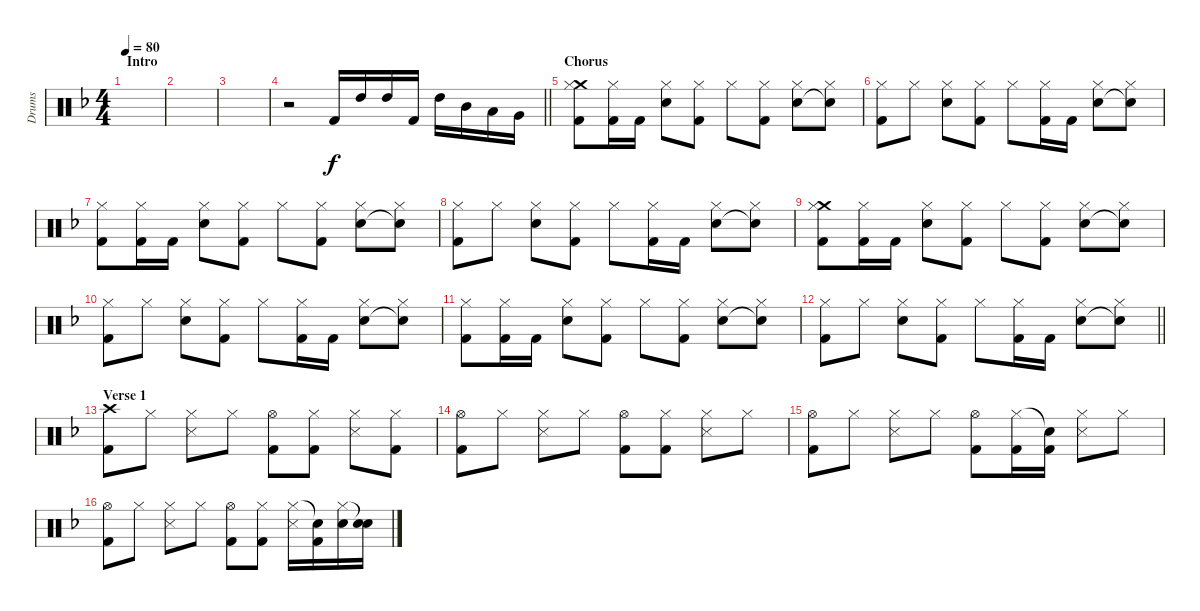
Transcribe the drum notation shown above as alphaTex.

\track ("Drums" "Drums") {instrument percussion}
\staff {score}
\articulation defaults
\ts (4 4)
\section ("" "Intro")
\tempo 80
\clef neutral
\ks f
|
|
|
\barLineRight lightlight
r.2 "Kick (hit) 2".16 "High Tom (hit)".16 "High Tom (hit)".16 "Kick (hit) 2".16 "High Tom (hit)".16 "Mid Tom (hit)".16 "Low Tom (hit)".16 "Very Low Tom (hit)".16 |
\section ("" "Chorus")
("Crash medium (hit)" "Hi-Hat (closed)" "Kick (hit) 2").8 ("Hi-Hat (closed)" "Kick (hit) 2").16 "Kick (hit) 2".16 ("Hi-Hat (closed)" "Snare (hit) 2").8 ("Hi-Hat (closed)" "Kick (hit) 2").8 "Hi-Hat (closed)".8 ("Hi-Hat (closed)" "Kick (hit) 2").8 ("Hi-Hat (closed)" "Snare (hit) 2").8 ("Hi-Hat (closed)" "Snare (hit) 2"{t}).8 |
("Hi-Hat (closed)" "Kick (hit) 2").8 "Hi-Hat (closed)".8 ("Hi-Hat (closed)" "Snare (hit) 2").8 ("Hi-Hat (closed)" "Kick (hit) 2").8 "Hi-Hat (closed)".8 ("Hi-Hat (closed)" "Kick (hit) 2").16 "Kick (hit) 2".16 ("Hi-Hat (closed)" "Snare (hit) 2").8 ("Hi-Hat (closed)" "Snare (hit)"{t}).8 |
("Hi-Hat (closed)" "Kick (hit) 2").8 ("Hi-Hat (closed)" "Kick (hit) 2").16 "Kick (hit) 2".16 ("Hi-Hat (closed)" "Snare (hit) 2").8 ("Hi-Hat (closed)" "Kick (hit) 2").8 "Hi-Hat (closed)".8 ("Hi-Hat (closed)" "Kick (hit) 2").8 ("Hi-Hat (closed)" "Snare (hit) 2").8 ("Hi-Hat (closed)" "Snare (hit) 2"{t}).8 |
("Hi-Hat (closed)" "Kick (hit) 2").8 "Hi-Hat (closed)".8 ("Hi-Hat (closed)" "Snare (hit) 2").8 ("Hi-Hat (closed)" "Kick (hit) 2").8 "Hi-Hat (closed)".8 ("Hi-Hat (closed)" "Kick (hit) 2").16 "Kick (hit) 2".16 ("Hi-Hat (closed)" "Snare (hit) 2").8 ("Hi-Hat (closed)" "Snare (hit)"{t}).8 |
("Crash medium (hit)" "Hi-Hat (closed)" "Kick (hit) 2").8 ("Hi-Hat (closed)" "Kick (hit) 2").16 "Kick (hit) 2".16 ("Hi-Hat (closed)" "Snare (hit) 2").8 ("Hi-Hat (closed)" "Kick (hit) 2").8 "Hi-Hat (closed)".8 ("Hi-Hat (closed)" "Kick (hit) 2").8 ("Hi-Hat (closed)" "Snare (hit) 2").8 ("Hi-Hat (closed)" "Snare (hit) 2"{t}).8 |
("Hi-Hat (closed)" "Kick (hit) 2").8 "Hi-Hat (closed)".8 ("Hi-Hat (closed)" "Snare (hit) 2").8 ("Hi-Hat (closed)" "Kick (hit) 2").8 "Hi-Hat (closed)".8 ("Hi-Hat (closed)" "Kick (hit) 2").16 "Kick (hit) 2".16 ("Hi-Hat (closed)" "Snare (hit) 2").8 ("Hi-Hat (closed)" "Snare (hit)"{t}).8 |
("Hi-Hat (closed)" "Kick (hit) 2").8 ("Hi-Hat (closed)" "Kick (hit) 2").16 "Kick (hit) 2".16 ("Hi-Hat (closed)" "Snare (hit) 2").8 ("Hi-Hat (closed)" "Kick (hit) 2").8 "Hi-Hat (closed)".8 ("Hi-Hat (closed)" "Kick (hit) 2").8 ("Hi-Hat (closed)" "Snare (hit) 2").8 ("Hi-Hat (closed)" "Snare (hit) 2"{t}).8 |
\barLineRight lightlight
("Hi-Hat (closed)" "Kick (hit) 2").8 "Hi-Hat (closed)".8 ("Hi-Hat (closed)" "Snare (hit) 2").8 ("Hi-Hat (closed)" "Kick (hit) 2").8 "Hi-Hat (closed)".8 ("Hi-Hat (closed)" "Kick (hit) 2").16 "Kick (hit) 2".16 ("Hi-Hat (closed)" "Snare (hit) 2").8 ("Hi-Hat (closed)" "Snare (hit)"{t}).8 |
\section ("" "Verse 1")
("Crash high (hit)" "Kick (hit) 2").8 "Hi-Hat (closed)".8 ("Hi-Hat (closed)" "Snare (side stick) 3").8 "Hi-Hat (closed)".8 ("Hi-Hat (open)" "Kick (hit) 2").8 ("Hi-Hat (closed)" "Kick (hit) 2").8 ("Hi-Hat (closed)" "Snare (side stick) 3").8 ("Hi-Hat (closed)" "Kick (hit) 2").8 |
("Hi-Hat (open)" "Kick (hit) 2").8 "Hi-Hat (closed)".8 ("Hi-Hat (closed)" "Snare (side stick) 3").8 "Hi-Hat (closed)".8 ("Hi-Hat (open)" "Kick (hit) 2").8 ("Hi-Hat (closed)" "Kick (hit) 2").8 ("Hi-Hat (closed)" "Snare (side stick) 3").8 "Hi-Hat (closed)".8 |
("Hi-Hat (open)" "Kick (hit) 2").8 "Hi-Hat (closed)".8 ("Hi-Hat (closed)" "Snare (side stick) 3").8 "Hi-Hat (closed)".8 ("Hi-Hat (open)" "Kick (hit) 2").8 ("Hi-Hat (closed)" "Kick (hit) 2").16 ("Snare (hit)"{t} "Kick (hit) 2").16 ("Hi-Hat (closed)" "Snare (side stick) 3").8 "Hi-Hat (closed)".8 |
("Hi-Hat (open)" "Kick (hit) 2").8 "Hi-Hat (closed)".8 ("Hi-Hat (closed)" "Snare (side stick) 3").8 "Hi-Hat (closed)".8 ("Hi-Hat (open)" "Kick (hit) 2").8 ("Hi-Hat (closed)" "Kick (hit) 2").8 ("Hi-Hat (closed)" "Snare (side stick) 3").16 ("Snare (hit)"{t} "Kick (hit) 2").16 ("Hi-Hat (closed)" "Snare (hit) 2").16 ("Snare (hit)"{t} "Snare (hit) 2").16
